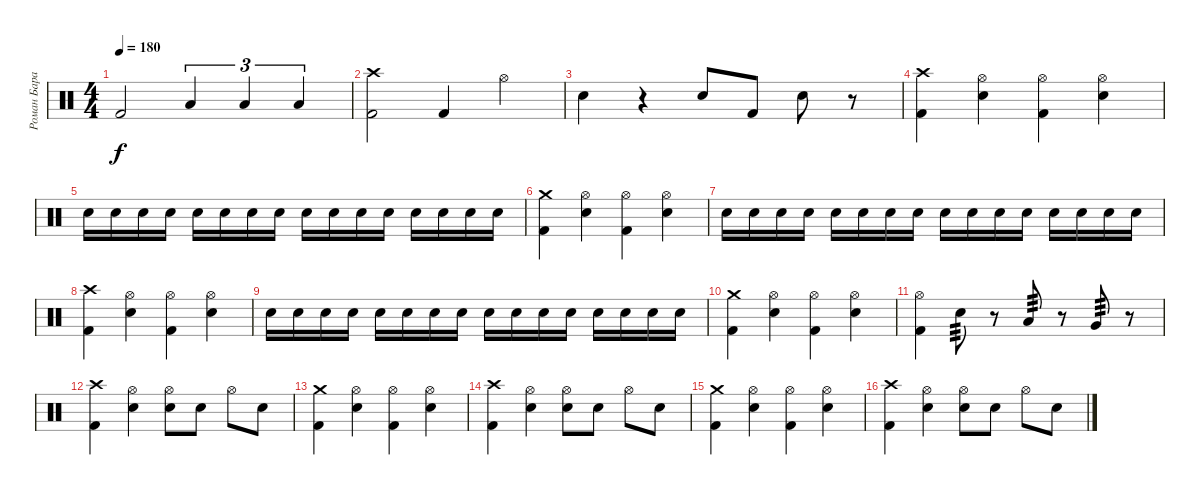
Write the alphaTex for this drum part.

\track ("Роман Баранюк" "Роман Бара") {instrument percussion}
\staff {score}
\articulation defaults
\ts (4 4)
\tempo 180
\clef neutral
\ks c "Kick (hit) 2".2{dy f} "Low Tom (hit)".4{tu (3 2)} "Low Tom (hit)".4{tu (3 2)} "Low Tom (hit)".4{tu (3 2)}
|
("Crash high (hit)" "Kick (hit) 2").2 "Kick (hit) 2".4 "Hi-Hat (open)".4 |
"Snare (hit) 2".4 r.4 "Snare (hit) 2".8 "Kick (hit) 2".8 "Snare (hit) 2".8 r.8 |
("Crash high (hit)" "Kick (hit) 2").4 ("Hi-Hat (open)" "Snare (hit) 2").4 ("Hi-Hat (open)" "Kick (hit) 2").4 ("Hi-Hat (open)" "Snare (hit) 2").4 |
"Snare (hit) 2".16 "Snare (hit) 2".16 "Snare (hit) 2".16 "Snare (hit) 2".16 "Snare (hit) 2".16 "Snare (hit) 2".16 "Snare (hit) 2".16 "Snare (hit) 2".16 "Snare (hit) 2".16 "Snare (hit) 2".16 "Snare (hit) 2".16 "Snare (hit) 2".16 "Snare (hit) 2".16 "Snare (hit) 2".16 "Snare (hit) 2".16 "Snare (hit) 2".16 |
("Crash medium (hit)" "Kick (hit) 2").4 ("Hi-Hat (open)" "Snare (hit) 2").4 ("Hi-Hat (open)" "Kick (hit) 2").4 ("Hi-Hat (open)" "Snare (hit) 2").4 |
"Snare (hit) 2".16 "Snare (hit) 2".16 "Snare (hit) 2".16 "Snare (hit) 2".16 "Snare (hit) 2".16 "Snare (hit) 2".16 "Snare (hit) 2".16 "Snare (hit) 2".16 "Snare (hit) 2".16 "Snare (hit) 2".16 "Snare (hit) 2".16 "Snare (hit) 2".16 "Snare (hit) 2".16 "Snare (hit) 2".16 "Snare (hit) 2".16 "Snare (hit) 2".16 |
("Crash high (hit)" "Kick (hit) 2").4 ("Hi-Hat (open)" "Snare (hit) 2").4 ("Hi-Hat (open)" "Kick (hit) 2").4 ("Hi-Hat (open)" "Snare (hit) 2").4 |
"Snare (hit) 2".16 "Snare (hit) 2".16 "Snare (hit) 2".16 "Snare (hit) 2".16 "Snare (hit) 2".16 "Snare (hit) 2".16 "Snare (hit) 2".16 "Snare (hit) 2".16 "Snare (hit) 2".16 "Snare (hit) 2".16 "Snare (hit) 2".16 "Snare (hit) 2".16 "Snare (hit) 2".16 "Snare (hit) 2".16 "Snare (hit) 2".16 "Snare (hit) 2".16 |
("Crash medium (hit)" "Kick (hit) 2").4 ("Hi-Hat (open)" "Snare (hit) 2").4 ("Hi-Hat (open)" "Kick (hit) 2").4 ("Hi-Hat (open)" "Snare (hit) 2").4 |
("Hi-Hat (open)" "Kick (hit) 2").4 "Snare (hit) 2".8{tp 3} r.8 "Low Tom (hit)".8{tp 3} r.8 "Very Low Tom (hit)".8{tp 3} r.8 |
("Crash high (hit)" "Kick (hit) 2").4 ("Hi-Hat (open)" "Snare (hit) 2").4 ("Hi-Hat (open)" "Snare (hit) 2").8 "Snare (hit) 2".8 "Hi-Hat (open)".8 "Snare (hit) 2".8 |
("Crash medium (hit)" "Kick (hit) 2").4 ("Hi-Hat (open)" "Snare (hit) 2").4 ("Hi-Hat (open)" "Kick (hit) 2").4 ("Hi-Hat (open)" "Snare (hit) 2").4 |
("Crash high (hit)" "Kick (hit) 2").4 ("Hi-Hat (open)" "Snare (hit) 2").4 ("Hi-Hat (open)" "Snare (hit) 2").8 "Snare (hit) 2".8 "Hi-Hat (open)".8 "Snare (hit) 2".8 |
("Crash medium (hit)" "Kick (hit) 2").4 ("Hi-Hat (open)" "Snare (hit) 2").4 ("Hi-Hat (open)" "Kick (hit) 2").4 ("Hi-Hat (open)" "Snare (hit) 2").4 |
("Crash high (hit)" "Kick (hit) 2").4 ("Hi-Hat (open)" "Snare (hit) 2").4 ("Hi-Hat (open)" "Snare (hit) 2").8 "Snare (hit) 2".8 "Hi-Hat (open)".8 "Snare (hit) 2".8
